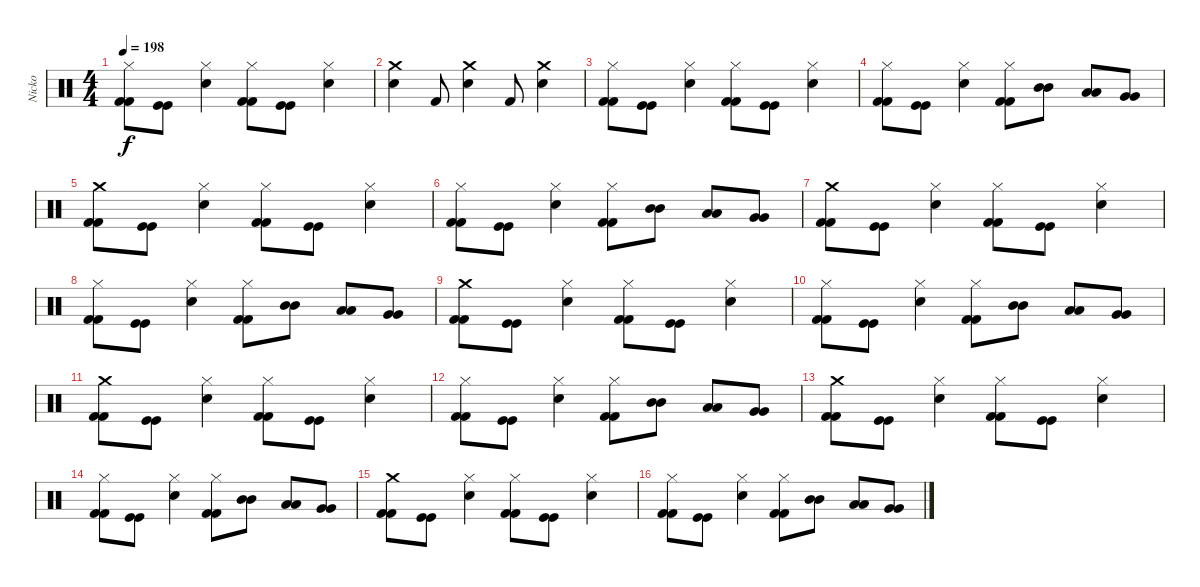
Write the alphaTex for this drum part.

\track ("Nicko" "Nicko") {instrument percussion}
\staff {score}
\articulation defaults
\ts (4 4)
\tempo 198
\clef neutral
\ks c
("Hi-Hat (closed)" "Kick (hit) 2" "Kick (hit) 2").8{dy f} ("Kick (hit)" "Kick (hit)").8 ("Hi-Hat (closed)" "Electric Snare (hit)").4 ("Hi-Hat (closed)" "Kick (hit) 2" "Kick (hit) 2").8 ("Kick (hit)" "Kick (hit)").8 ("Hi-Hat (closed)" "Electric Snare (hit)").4 |
("Crash medium (hit)" "Electric Snare (hit)").4 "Kick (hit) 2".8 ("Crash medium (hit)" "Electric Snare (hit)").4 "Kick (hit) 2".8 ("Crash medium (hit)" "Electric Snare (hit)").4 |
("Hi-Hat (closed)" "Kick (hit) 2" "Kick (hit) 2").8 ("Kick (hit)" "Kick (hit)").8 ("Hi-Hat (closed)" "Electric Snare (hit)").4 ("Hi-Hat (closed)" "Kick (hit) 2" "Kick (hit) 2").8 ("Kick (hit)" "Kick (hit)").8 ("Hi-Hat (closed)" "Electric Snare (hit)").4 |
("Hi-Hat (closed)" "Kick (hit) 2" "Kick (hit) 2").8 ("Kick (hit)" "Kick (hit)").8 ("Hi-Hat (closed)" "Electric Snare (hit)").4 ("Hi-Hat (closed)" "Kick (hit) 2" "Kick (hit) 2").8 ("Mid Tom (hit)" "Mid Tom (hit)").8 ("Low Tom (hit)" "Low Tom (hit)").8 ("Very Low Tom (hit)" "Very Low Tom (hit)").8 |
("Crash medium (hit)" "Kick (hit) 2" "Kick (hit) 2").8 ("Kick (hit)" "Kick (hit)").8 ("Hi-Hat (closed)" "Electric Snare (hit)").4 ("Hi-Hat (closed)" "Kick (hit) 2" "Kick (hit) 2").8 ("Kick (hit)" "Kick (hit)").8 ("Hi-Hat (closed)" "Electric Snare (hit)").4 |
("Hi-Hat (closed)" "Kick (hit) 2" "Kick (hit) 2").8 ("Kick (hit)" "Kick (hit)").8 ("Hi-Hat (closed)" "Electric Snare (hit)").4 ("Hi-Hat (closed)" "Kick (hit) 2" "Kick (hit) 2").8 ("Mid Tom (hit)" "Mid Tom (hit)").8 ("Low Tom (hit)" "Low Tom (hit)").8 ("Very Low Tom (hit)" "Very Low Tom (hit)").8 |
("Crash medium (hit)" "Kick (hit) 2" "Kick (hit) 2").8 ("Kick (hit)" "Kick (hit)").8 ("Hi-Hat (closed)" "Electric Snare (hit)").4 ("Hi-Hat (closed)" "Kick (hit) 2" "Kick (hit) 2").8 ("Kick (hit)" "Kick (hit)").8 ("Hi-Hat (closed)" "Electric Snare (hit)").4 |
("Hi-Hat (closed)" "Kick (hit) 2" "Kick (hit) 2").8 ("Kick (hit)" "Kick (hit)").8 ("Hi-Hat (closed)" "Electric Snare (hit)").4 ("Hi-Hat (closed)" "Kick (hit) 2" "Kick (hit) 2").8 ("Mid Tom (hit)" "Mid Tom (hit)").8 ("Low Tom (hit)" "Low Tom (hit)").8 ("Very Low Tom (hit)" "Very Low Tom (hit)").8 |
("Crash medium (hit)" "Kick (hit) 2" "Kick (hit) 2").8 ("Kick (hit)" "Kick (hit)").8 ("Hi-Hat (closed)" "Electric Snare (hit)").4 ("Hi-Hat (closed)" "Kick (hit) 2" "Kick (hit) 2").8 ("Kick (hit)" "Kick (hit)").8 ("Hi-Hat (closed)" "Electric Snare (hit)").4 |
("Hi-Hat (closed)" "Kick (hit) 2" "Kick (hit) 2").8 ("Kick (hit)" "Kick (hit)").8 ("Hi-Hat (closed)" "Electric Snare (hit)").4 ("Hi-Hat (closed)" "Kick (hit) 2" "Kick (hit) 2").8 ("Mid Tom (hit)" "Mid Tom (hit)").8 ("Low Tom (hit)" "Low Tom (hit)").8 ("Very Low Tom (hit)" "Very Low Tom (hit)").8 |
("Crash medium (hit)" "Kick (hit) 2" "Kick (hit) 2").8 ("Kick (hit)" "Kick (hit)").8 ("Hi-Hat (closed)" "Electric Snare (hit)").4 ("Hi-Hat (closed)" "Kick (hit) 2" "Kick (hit) 2").8 ("Kick (hit)" "Kick (hit)").8 ("Hi-Hat (closed)" "Electric Snare (hit)").4 |
("Hi-Hat (closed)" "Kick (hit) 2" "Kick (hit) 2").8 ("Kick (hit)" "Kick (hit)").8 ("Hi-Hat (closed)" "Electric Snare (hit)").4 ("Hi-Hat (closed)" "Kick (hit) 2" "Kick (hit) 2").8 ("Mid Tom (hit)" "Mid Tom (hit)").8 ("Low Tom (hit)" "Low Tom (hit)").8 ("Very Low Tom (hit)" "Very Low Tom (hit)").8 |
("Crash medium (hit)" "Kick (hit) 2" "Kick (hit) 2").8 ("Kick (hit)" "Kick (hit)").8 ("Hi-Hat (closed)" "Electric Snare (hit)").4 ("Hi-Hat (closed)" "Kick (hit) 2" "Kick (hit) 2").8 ("Kick (hit)" "Kick (hit)").8 ("Hi-Hat (closed)" "Electric Snare (hit)").4 |
("Hi-Hat (closed)" "Kick (hit) 2" "Kick (hit) 2").8 ("Kick (hit)" "Kick (hit)").8 ("Hi-Hat (closed)" "Electric Snare (hit)").4 ("Hi-Hat (closed)" "Kick (hit) 2" "Kick (hit) 2").8 ("Mid Tom (hit)" "Mid Tom (hit)").8 ("Low Tom (hit)" "Low Tom (hit)").8 ("Very Low Tom (hit)" "Very Low Tom (hit)").8 |
("Crash medium (hit)" "Kick (hit) 2" "Kick (hit) 2").8 ("Kick (hit)" "Kick (hit)").8 ("Hi-Hat (closed)" "Electric Snare (hit)").4 ("Hi-Hat (closed)" "Kick (hit) 2" "Kick (hit) 2").8 ("Kick (hit)" "Kick (hit)").8 ("Hi-Hat (closed)" "Electric Snare (hit)").4 |
("Hi-Hat (closed)" "Kick (hit) 2" "Kick (hit) 2").8 ("Kick (hit)" "Kick (hit)").8 ("Hi-Hat (closed)" "Electric Snare (hit)").4 ("Hi-Hat (closed)" "Kick (hit) 2" "Kick (hit) 2").8 ("Mid Tom (hit)" "Mid Tom (hit)").8 ("Low Tom (hit)" "Low Tom (hit)").8 ("Very Low Tom (hit)" "Very Low Tom (hit)").8
